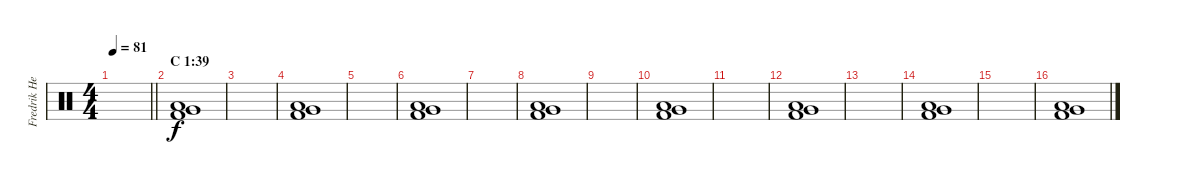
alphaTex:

\track ("Fredrik Hellerström (Drums)" "Fredrik He") {instrument percussion}
\staff {score}
\articulation defaults
\ts (4 4)
\tempo 81
\clef neutral
\barLineRight lightlight
\ks c
|
\section ("" "C 1:39")
("Very Low Tom (hit)" "Low Floor Tom (hit)" "Kick (hit) 2").1{dy f} |
|
("Very Low Tom (hit)" "Low Floor Tom (hit)" "Kick (hit) 2").1 |
|
("Very Low Tom (hit)" "Low Floor Tom (hit)" "Kick (hit) 2").1 |
|
("Very Low Tom (hit)" "Low Floor Tom (hit)" "Kick (hit) 2").1 |
|
("Very Low Tom (hit)" "Low Floor Tom (hit)" "Kick (hit) 2").1 |
|
("Very Low Tom (hit)" "Low Floor Tom (hit)" "Kick (hit) 2").1 |
|
("Very Low Tom (hit)" "Low Floor Tom (hit)" "Kick (hit) 2").1 |
|
("Very Low Tom (hit)" "Low Floor Tom (hit)" "Kick (hit) 2").1
